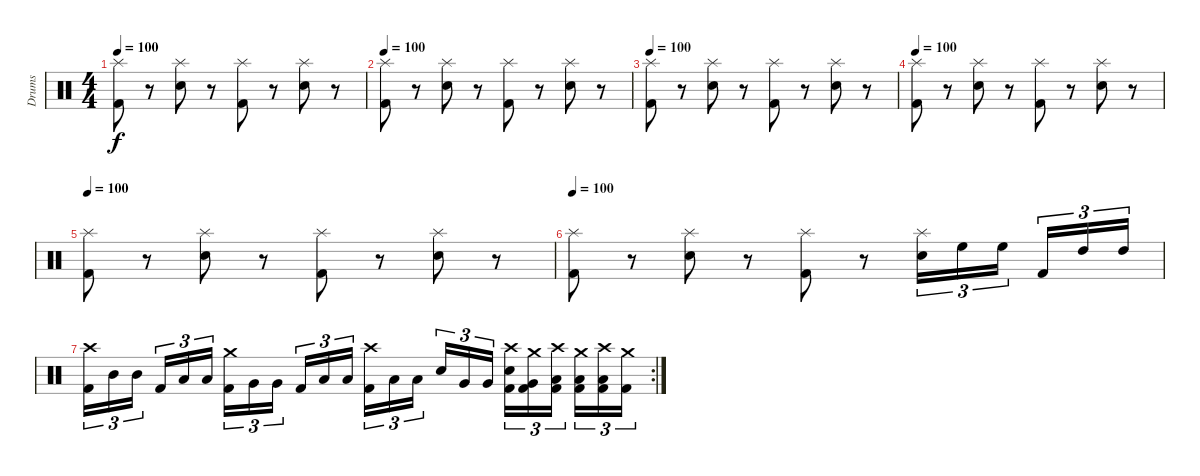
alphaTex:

\track ("Drums" "Drums") {instrument percussion}
\staff {score}
\articulation defaults
\ts (4 4)
\tempo 100
\clef neutral
\ks c
("Splash (hit)" "Kick (hit) 2").8{dy f} r.8 ("Splash (hit)" "Snare (hit) 2").8 r.8 ("Splash (hit)" "Kick (hit) 2").8 r.8 ("Splash (hit)" "Snare (hit) 2").8 r.8 |
\tempo 100
("Splash (hit)" "Kick (hit) 2").8 r.8 ("Splash (hit)" "Snare (hit) 2").8 r.8 ("Splash (hit)" "Kick (hit) 2").8 r.8 ("Splash (hit)" "Snare (hit) 2").8 r.8 |
\tempo 100
("Splash (hit)" "Kick (hit) 2").8 r.8 ("Splash (hit)" "Snare (hit) 2").8 r.8 ("Splash (hit)" "Kick (hit) 2").8 r.8 ("Splash (hit)" "Snare (hit) 2").8 r.8 |
\tempo 100
("Splash (hit)" "Kick (hit) 2").8 r.8 ("Splash (hit)" "Snare (hit) 2").8 r.8 ("Splash (hit)" "Kick (hit) 2").8 r.8 ("Splash (hit)" "Snare (hit) 2").8 r.8 |
\tempo 100
("Splash (hit)" "Kick (hit) 2").8 r.8 ("Splash (hit)" "Snare (hit) 2").8 r.8 ("Splash (hit)" "Kick (hit) 2").8 r.8 ("Splash (hit)" "Snare (hit) 2").8 r.8 |
\tempo 100
("Splash (hit)" "Kick (hit) 2").8 r.8 ("Splash (hit)" "Snare (hit) 2").8 r.8 ("Splash (hit)" "Kick (hit) 2").8 r.8 ("Splash (hit)" "Snare (hit) 2").16{tu (3 2)} "High Floor Tom (hit)".16{tu (3 2)} "High Floor Tom (hit)".16{tu (3 2)} "Kick (hit) 2".16{tu (3 2)} "High Tom (hit)".16{tu (3 2)} "High Tom (hit)".16{tu (3 2)} |
\rc 2
("Crash high (hit)" "Kick (hit) 2").16{tu (3 2)} "Mid Tom (hit)".16{tu (3 2)} "Mid Tom (hit)".16{tu (3 2)} "Kick (hit) 2".16{tu (3 2)} "Low Tom (hit)".16{tu (3 2)} "Low Tom (hit)".16{tu (3 2)} ("Crash medium (hit)" "Kick (hit) 2").16{tu (3 2)} "Very Low Tom (hit)".16{tu (3 2)} "Very Low Tom (hit)".16{tu (3 2)} "Kick (hit) 2".16{tu (3 2)} "Low Floor Tom (hit)".16{tu (3 2)} "Low Floor Tom (hit)".16{tu (3 2)} ("Crash high (hit)" "Kick (hit) 2").16{tu (3 2)} "Low Tom (hit)".16{tu (3 2)} "Low Tom (hit)".16{tu (3 2)} "Snare (hit) 2".16{tu (3 2)} "Very Low Tom (hit)".16{tu (3 2)} "Very Low Tom (hit)".16{tu (3 2)} ("Snare (hit) 2" "Crash high (hit)" "Kick (hit) 2").16{tu (3 2)} ("Very Low Tom (hit)" "Crash medium (hit)" "Kick (hit) 2").16{tu (3 2)} ("Low Floor Tom (hit)" "Crash high (hit)" "Kick (hit) 2").16{tu (3 2)} ("Low Floor Tom (hit)" "Crash medium (hit)" "Kick (hit) 2").16{tu (3 2)} ("Low Floor Tom (hit)" "Crash high (hit)" "Kick (hit) 2").16{tu (3 2)} ("Crash medium (hit)" "Kick (hit) 2").16{tu (3 2)}
